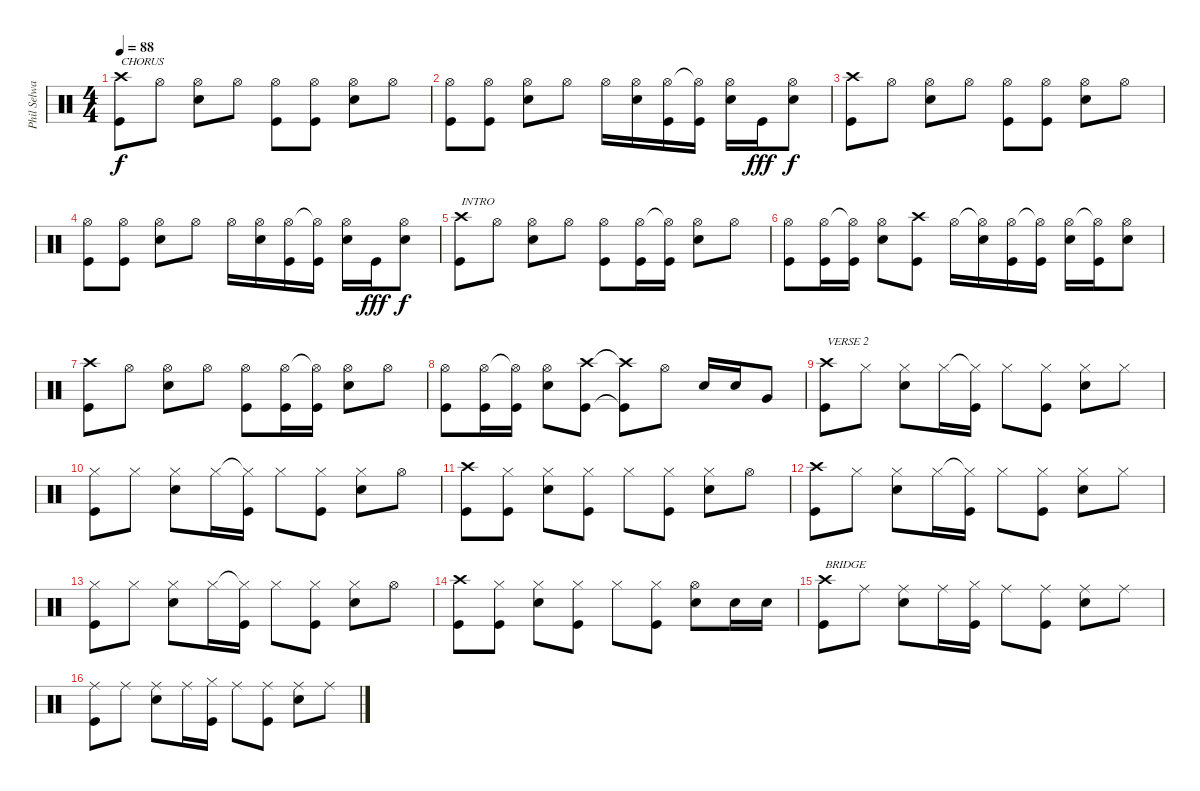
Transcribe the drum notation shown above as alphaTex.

\track ("Phil Selway" "Phil Selwa") {instrument percussion}
\staff {score}
\articulation defaults
\ts (4 4)
\tempo 88
\clef neutral
\ks c
("Crash high (hit)" "Kick (hit)").8{txt "CHORUS" dy f} "Hi-Hat (open)".8 ("Hi-Hat (open)" "Snare (hit) 2").8 "Hi-Hat (open)".8 ("Hi-Hat (open)" "Kick (hit)").8 ("Hi-Hat (open)" "Kick (hit)").8 ("Hi-Hat (open)" "Snare (hit) 2").8 "Hi-Hat (open)".8 |
("Hi-Hat (open)" "Kick (hit)").8 ("Hi-Hat (open)" "Kick (hit)").8 ("Hi-Hat (open)" "Snare (hit) 2").8 "Hi-Hat (open)".8 "Hi-Hat (open)".16 ("Hi-Hat (open)" "Snare (hit) 2").16 ("Hi-Hat (open)" "Kick (hit)").16 ("Hi-Hat (open)"{t} "Kick (hit)").16 ("Hi-Hat (open)" "Snare (hit) 2").16 "Kick (hit)".16{dy fff} ("Hi-Hat (open)" "Snare (hit) 2").8{dy f} |
("Crash high (hit)" "Kick (hit)").8 "Hi-Hat (open)".8 ("Hi-Hat (open)" "Snare (hit) 2").8 "Hi-Hat (open)".8 ("Hi-Hat (open)" "Kick (hit)").8 ("Hi-Hat (open)" "Kick (hit)").8 ("Hi-Hat (open)" "Snare (hit) 2").8 "Hi-Hat (open)".8 |
("Hi-Hat (open)" "Kick (hit)").8 ("Hi-Hat (open)" "Kick (hit)").8 ("Hi-Hat (open)" "Snare (hit) 2").8 "Hi-Hat (open)".8 "Hi-Hat (open)".16 ("Hi-Hat (open)" "Snare (hit) 2").16 ("Hi-Hat (open)" "Kick (hit)").16 ("Hi-Hat (open)"{t} "Kick (hit)").16 ("Hi-Hat (open)" "Snare (hit) 2").16 "Kick (hit)".16{dy fff} ("Hi-Hat (open)" "Snare (hit) 2").8{dy f} |
("Crash high (hit)" "Kick (hit)").8{txt "INTRO"} "Hi-Hat (open)".8 ("Hi-Hat (open)" "Snare (hit) 2").8 "Hi-Hat (open)".8 ("Hi-Hat (open)" "Kick (hit)").8 ("Hi-Hat (open)" "Kick (hit)").16 ("Hi-Hat (open)"{t} "Kick (hit)").16 ("Hi-Hat (open)" "Snare (hit) 2").8 "Hi-Hat (open)".8 |
("Hi-Hat (open)" "Kick (hit)").8 ("Hi-Hat (open)" "Kick (hit)").16 ("Hi-Hat (open)"{t} "Kick (hit)").16 ("Hi-Hat (open)" "Snare (hit) 2").8 ("Crash high (hit)" "Kick (hit)").8 "Hi-Hat (open)".16 ("Hi-Hat (open)"{t} "Snare (hit) 2").16 ("Hi-Hat (open)" "Kick (hit)").16 ("Hi-Hat (open)"{t} "Kick (hit)").16 ("Hi-Hat (open)" "Snare (hit) 2").16 ("Hi-Hat (open)"{t} "Kick (hit)").16 ("Hi-Hat (open)" "Snare (hit) 2").8 |
("Crash high (hit)" "Kick (hit)").8 "Hi-Hat (open)".8 ("Hi-Hat (open)" "Snare (hit) 2").8 "Hi-Hat (open)".8 ("Hi-Hat (open)" "Kick (hit)").8 ("Hi-Hat (open)" "Kick (hit)").16 ("Hi-Hat (open)"{t} "Kick (hit)").16 ("Hi-Hat (open)" "Snare (hit) 2").8 "Hi-Hat (open)".8 |
("Hi-Hat (open)" "Kick (hit)").8 ("Hi-Hat (open)" "Kick (hit)").16 ("Hi-Hat (open)"{t} "Kick (hit)").16 ("Hi-Hat (open)" "Snare (hit) 2").8 ("Crash high (hit)" "Kick (hit)").8 ("Crash high (hit)"{t} "Kick (hit)"{t}).8 "Hi-Hat (open)".8 "Snare (hit) 2".16 "Snare (hit) 2".16 "Very Low Tom (hit)".8 |
("Crash high (hit)" "Kick (hit)").8{txt "VERSE 2"} "Hi-Hat (closed)".8 ("Hi-Hat (closed)" "Snare (hit) 2").8 "Hi-Hat (closed)".16 ("Hi-Hat (closed)"{t} "Kick (hit)").16 "Hi-Hat (closed)".8 ("Hi-Hat (closed)" "Kick (hit)").8 ("Hi-Hat (closed)" "Snare (hit) 2").8 "Hi-Hat (closed)".8 |
("Hi-Hat (closed)" "Kick (hit)").8 "Hi-Hat (closed)".8 ("Hi-Hat (closed)" "Snare (hit) 2").8 "Hi-Hat (closed)".16 ("Hi-Hat (closed)"{t} "Kick (hit)").16 "Hi-Hat (closed)".8 ("Hi-Hat (closed)" "Kick (hit)").8 ("Hi-Hat (closed)" "Snare (hit) 2").8 "Hi-Hat (open)".8 |
("Crash high (hit)" "Kick (hit)").8 ("Hi-Hat (closed)" "Kick (hit)").8 ("Hi-Hat (closed)" "Snare (hit) 2").8 ("Hi-Hat (closed)" "Kick (hit)").8 "Hi-Hat (closed)".8 ("Hi-Hat (closed)" "Kick (hit)").8 ("Hi-Hat (closed)" "Snare (hit) 2").8 "Hi-Hat (open)".8 |
("Crash high (hit)" "Kick (hit)").8 "Hi-Hat (closed)".8 ("Hi-Hat (closed)" "Snare (hit) 2").8 "Hi-Hat (closed)".16 ("Hi-Hat (closed)"{t} "Kick (hit)").16 "Hi-Hat (closed)".8 ("Hi-Hat (closed)" "Kick (hit)").8 ("Hi-Hat (closed)" "Snare (hit) 2").8 "Hi-Hat (closed)".8 |
("Hi-Hat (closed)" "Kick (hit)").8 "Hi-Hat (closed)".8 ("Hi-Hat (closed)" "Snare (hit) 2").8 "Hi-Hat (closed)".16 ("Hi-Hat (closed)"{t} "Kick (hit)").16 "Hi-Hat (closed)".8 ("Hi-Hat (closed)" "Kick (hit)").8 ("Hi-Hat (closed)" "Snare (hit) 2").8 "Hi-Hat (open)".8 |
("Crash high (hit)" "Kick (hit)").8 ("Hi-Hat (closed)" "Kick (hit)").8 ("Hi-Hat (closed)" "Snare (hit) 2").8 ("Hi-Hat (closed)" "Kick (hit)").8 "Hi-Hat (closed)".8 ("Hi-Hat (closed)" "Kick (hit)").8 ("Hi-Hat (open)" "Snare (hit) 2").8 "Snare (hit) 2".16 "Snare (hit) 2".16 |
("Crash high (hit)" "Kick (hit)").8{txt "BRIDGE"} "Ride (middle)".8 ("Ride (middle)" "Snare (hit) 2").8 "Ride (middle)".16 ("Hi-Hat (closed)" "Kick (hit)").16 "Ride (middle)".8 ("Ride (middle)" "Kick (hit)").8 ("Ride (middle)" "Snare (hit) 2").8 "Ride (middle)".8 |
("Ride (middle)" "Kick (hit)").8 "Ride (middle)".8 ("Ride (middle)" "Snare (hit) 2").8 "Ride (middle)".16 ("Hi-Hat (closed)" "Kick (hit)").16 "Ride (middle)".8 ("Ride (middle)" "Kick (hit)").8 ("Ride (middle)" "Snare (hit) 2").8 "Ride (middle)".8
